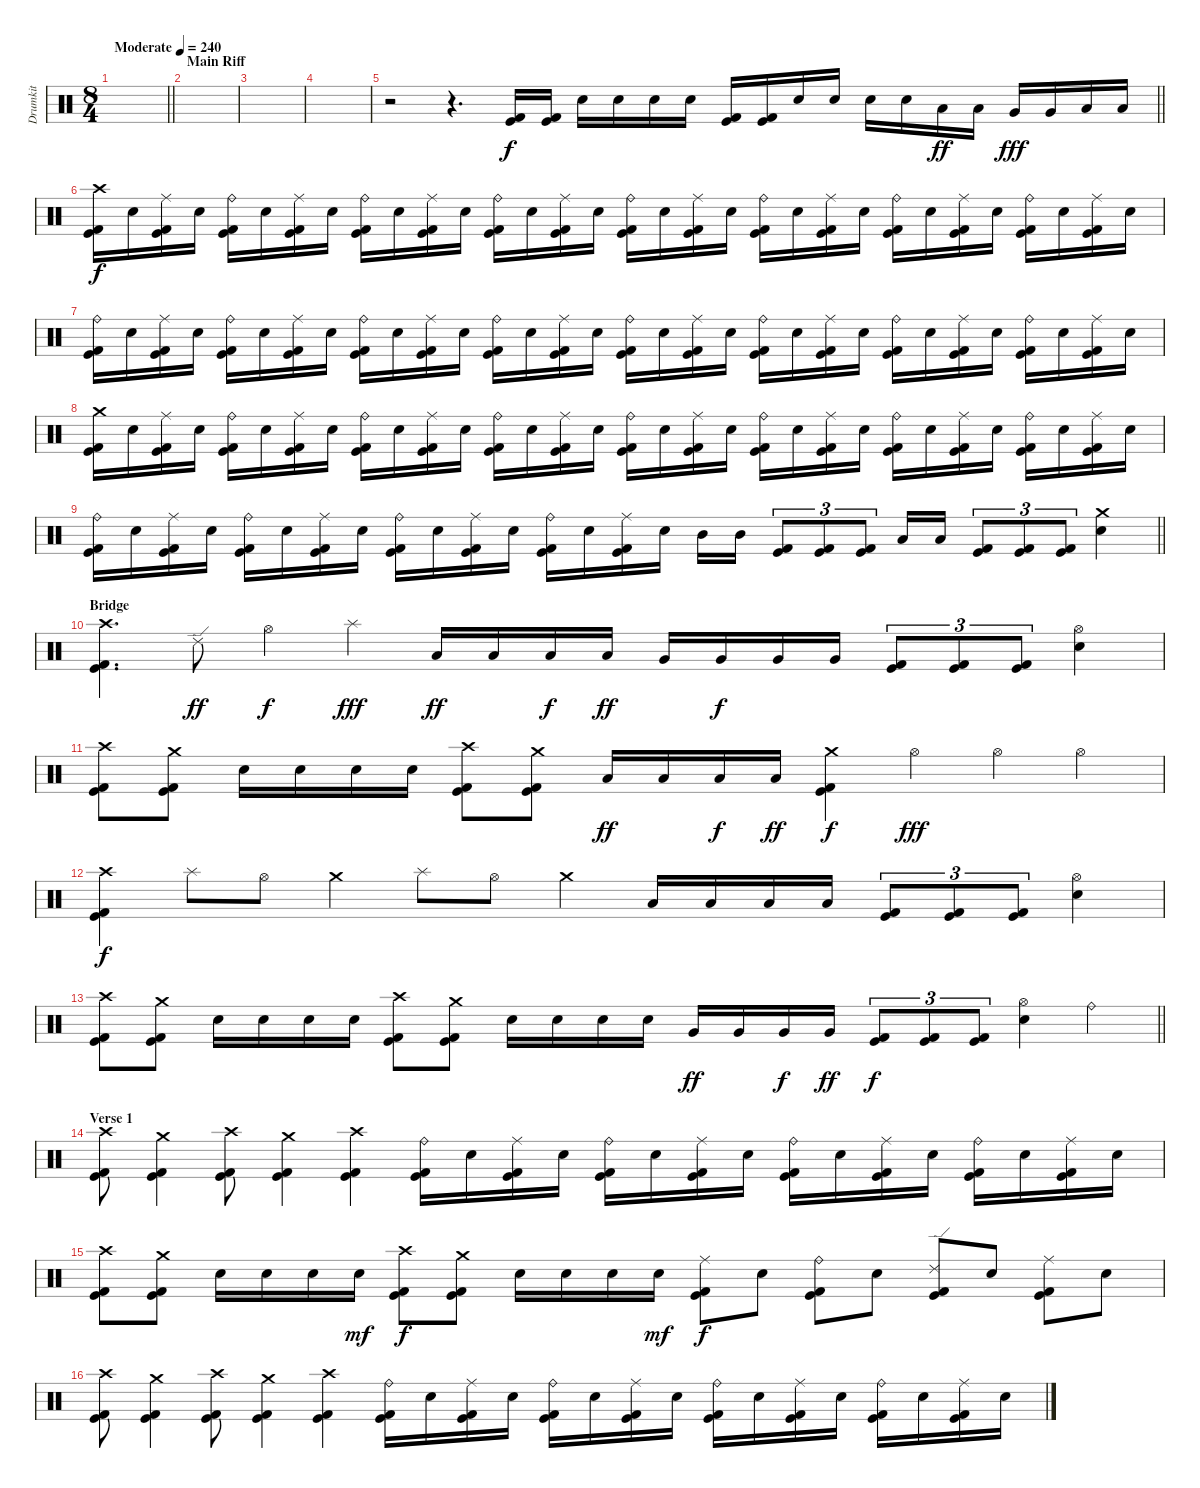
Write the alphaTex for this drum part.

\track ("Drumkit" "Drumkit") {instrument percussion}
\staff {score}
\articulation defaults
\ts (8 4)
\tempo (240 "Moderate")
\clef neutral
\barLineRight lightlight
\ks c
|
\section ("" "Main Riff")
|
|
|
\barLineRight lightlight
r.2 r.4{d} ("Kick (hit)" "Kick (hit) 2").16 ("Kick (hit)" "Kick (hit) 2").16 "Electric Snare (hit)".16 "Electric Snare (hit)".16 "Electric Snare (hit)".16 "Electric Snare (hit)".16 ("Kick (hit)" "Kick (hit) 2").16 ("Kick (hit)" "Kick (hit) 2").16 "Electric Snare (hit)".16 "Electric Snare (hit)".16 "Electric Snare (hit)".16 "Electric Snare (hit)".16 "Low Tom (hit)".16{dy ff} "Low Tom (hit)".16 "Very Low Tom (hit)".16{dy fff} "Very Low Tom (hit)".16 "Low Floor Tom (hit)".16 "Low Floor Tom (hit)".16 |
("Crash high (hit)" "Kick (hit)" "Kick (hit) 2").16{dy f} "Electric Snare (hit)".16 ("Ride (middle)" "Kick (hit)" "Kick (hit) 2").16 "Electric Snare (hit)".16 ("Ride (bell)" "Kick (hit)" "Kick (hit) 2").16 "Electric Snare (hit)".16 ("Ride (middle)" "Kick (hit)" "Kick (hit) 2").16 "Electric Snare (hit)".16 ("Ride (bell)" "Kick (hit)" "Kick (hit) 2").16 "Electric Snare (hit)".16 ("Ride (middle)" "Kick (hit)" "Kick (hit) 2").16 "Electric Snare (hit)".16 ("Ride (bell)" "Kick (hit)" "Kick (hit) 2").16 "Electric Snare (hit)".16 ("Ride (middle)" "Kick (hit)" "Kick (hit) 2").16 "Electric Snare (hit)".16 ("Ride (bell)" "Kick (hit)" "Kick (hit) 2").16 "Electric Snare (hit)".16 ("Ride (middle)" "Kick (hit)" "Kick (hit) 2").16 "Electric Snare (hit)".16 ("Ride (bell)" "Kick (hit)" "Kick (hit) 2").16 "Electric Snare (hit)".16 ("Ride (middle)" "Kick (hit)" "Kick (hit) 2").16 "Electric Snare (hit)".16 ("Ride (bell)" "Kick (hit)" "Kick (hit) 2").16 "Electric Snare (hit)".16 ("Ride (middle)" "Kick (hit)" "Kick (hit) 2").16 "Electric Snare (hit)".16 ("Ride (bell)" "Kick (hit)" "Kick (hit) 2").16 "Electric Snare (hit)".16 ("Ride (middle)" "Kick (hit)" "Kick (hit) 2").16 "Electric Snare (hit)".16 |
("Ride (bell)" "Kick (hit)" "Kick (hit) 2").16 "Electric Snare (hit)".16 ("Ride (middle)" "Kick (hit)" "Kick (hit) 2").16 "Electric Snare (hit)".16 ("Ride (bell)" "Kick (hit)" "Kick (hit) 2").16 "Electric Snare (hit)".16 ("Ride (middle)" "Kick (hit)" "Kick (hit) 2").16 "Electric Snare (hit)".16 ("Ride (bell)" "Kick (hit)" "Kick (hit) 2").16 "Electric Snare (hit)".16 ("Ride (middle)" "Kick (hit)" "Kick (hit) 2").16 "Electric Snare (hit)".16 ("Ride (bell)" "Kick (hit)" "Kick (hit) 2").16 "Electric Snare (hit)".16 ("Ride (middle)" "Kick (hit)" "Kick (hit) 2").16 "Electric Snare (hit)".16 ("Ride (bell)" "Kick (hit)" "Kick (hit) 2").16 "Electric Snare (hit)".16 ("Ride (middle)" "Kick (hit)" "Kick (hit) 2").16 "Electric Snare (hit)".16 ("Ride (bell)" "Kick (hit)" "Kick (hit) 2").16 "Electric Snare (hit)".16 ("Ride (middle)" "Kick (hit)" "Kick (hit) 2").16 "Electric Snare (hit)".16 ("Ride (bell)" "Kick (hit)" "Kick (hit) 2").16 "Electric Snare (hit)".16 ("Ride (middle)" "Kick (hit)" "Kick (hit) 2").16 "Electric Snare (hit)".16 ("Ride (bell)" "Kick (hit)" "Kick (hit) 2").16 "Electric Snare (hit)".16 ("Ride (middle)" "Kick (hit)" "Kick (hit) 2").16 "Electric Snare (hit)".16 |
("Crash medium (hit)" "Kick (hit)" "Kick (hit) 2").16 "Electric Snare (hit)".16 ("Ride (middle)" "Kick (hit)" "Kick (hit) 2").16 "Electric Snare (hit)".16 ("Ride (bell)" "Kick (hit)" "Kick (hit) 2").16 "Electric Snare (hit)".16 ("Ride (middle)" "Kick (hit)" "Kick (hit) 2").16 "Electric Snare (hit)".16 ("Ride (bell)" "Kick (hit)" "Kick (hit) 2").16 "Electric Snare (hit)".16 ("Ride (middle)" "Kick (hit)" "Kick (hit) 2").16 "Electric Snare (hit)".16 ("Ride (bell)" "Kick (hit)" "Kick (hit) 2").16 "Electric Snare (hit)".16 ("Ride (middle)" "Kick (hit)" "Kick (hit) 2").16 "Electric Snare (hit)".16 ("Ride (bell)" "Kick (hit)" "Kick (hit) 2").16 "Electric Snare (hit)".16 ("Ride (middle)" "Kick (hit)" "Kick (hit) 2").16 "Electric Snare (hit)".16 ("Ride (bell)" "Kick (hit)" "Kick (hit) 2").16 "Electric Snare (hit)".16 ("Ride (middle)" "Kick (hit)" "Kick (hit) 2").16 "Electric Snare (hit)".16 ("Ride (bell)" "Kick (hit)" "Kick (hit) 2").16 "Electric Snare (hit)".16 ("Ride (middle)" "Kick (hit)" "Kick (hit) 2").16 "Electric Snare (hit)".16 ("Ride (bell)" "Kick (hit)" "Kick (hit) 2").16 "Electric Snare (hit)".16 ("Ride (middle)" "Kick (hit)" "Kick (hit) 2").16 "Electric Snare (hit)".16 |
\barLineRight lightlight
("Ride (bell)" "Kick (hit)" "Kick (hit) 2").16 "Electric Snare (hit)".16 ("Ride (middle)" "Kick (hit)" "Kick (hit) 2").16 "Electric Snare (hit)".16 ("Ride (bell)" "Kick (hit)" "Kick (hit) 2").16 "Electric Snare (hit)".16 ("Ride (middle)" "Kick (hit)" "Kick (hit) 2").16 "Electric Snare (hit)".16 ("Ride (bell)" "Kick (hit)" "Kick (hit) 2").16 "Electric Snare (hit)".16 ("Ride (middle)" "Kick (hit)" "Kick (hit) 2").16 "Electric Snare (hit)".16 ("Ride (bell)" "Kick (hit)" "Kick (hit) 2").16 "Electric Snare (hit)".16 ("Ride (middle)" "Kick (hit)" "Kick (hit) 2").16 "Electric Snare (hit)".16 "Mid Tom (hit)".16 "Mid Tom (hit)".16 ("Kick (hit)" "Kick (hit) 2").8{tu (3 2)} ("Kick (hit)" "Kick (hit) 2").8{tu (3 2)} ("Kick (hit)" "Kick (hit) 2").8{tu (3 2)} "Low Tom (hit)".16 "Low Tom (hit)".16 ("Kick (hit)" "Kick (hit) 2").8{tu (3 2)} ("Kick (hit)" "Kick (hit) 2").8{tu (3 2)} ("Kick (hit)" "Kick (hit) 2").8{tu (3 2)} ("Crash medium (hit)" "Electric Snare (hit)").4 |
\section ("" "Bridge")
("Crash high (hit)" "Kick (hit)" "Kick (hit) 2").4{d} "Ride (edge) 2".8{dy ff} "Hi-Hat (open)".4{dy f} "Splash (hit)".4{dy fff} "Low Tom (hit)".16{dy ff} "Low Tom (hit)".16 "Low Tom (hit)".16{dy f} "Low Tom (hit)".16{dy ff} "Very Low Tom (hit)".16 "Very Low Tom (hit)".16{dy f} "Very Low Tom (hit)".16 "Very Low Tom (hit)".16 ("Kick (hit)" "Kick (hit) 2").8{tu (3 2)} ("Kick (hit)" "Kick (hit) 2").8{tu (3 2)} ("Kick (hit)" "Kick (hit) 2").8{tu (3 2)} ("Hi-Hat (open)" "Electric Snare (hit)").4 |
("Crash high (hit)" "Kick (hit)" "Kick (hit) 2").8 ("Crash medium (hit)" "Kick (hit)" "Kick (hit) 2").8 "Electric Snare (hit)".16 "Electric Snare (hit)".16 "Electric Snare (hit)".16 "Electric Snare (hit)".16 ("Crash high (hit)" "Kick (hit)" "Kick (hit) 2").8 ("Crash medium (hit)" "Kick (hit)" "Kick (hit) 2").8 "Low Tom (hit)".16{dy ff} "Low Tom (hit)".16 "Low Tom (hit)".16{dy f} "Low Tom (hit)".16{dy ff} ("Crash medium (hit)" "Kick (hit)" "Kick (hit) 2").4{dy f} "Hi-Hat (open)".4{dy fff} "Hi-Hat (open)".4 "Hi-Hat (open)".4 |
("Crash high (hit)" "Kick (hit)" "Kick (hit) 2").4{dy f} "Splash (hit)".8 "Hi-Hat (open)".8 "Crash medium (hit)".4 "Splash (hit)".8 "Hi-Hat (open)".8 "Crash medium (hit)".4 "Low Tom (hit)".16 "Low Tom (hit)".16 "Low Tom (hit)".16 "Low Tom (hit)".16 ("Kick (hit)" "Kick (hit) 2").8{tu (3 2)} ("Kick (hit)" "Kick (hit) 2").8{tu (3 2)} ("Kick (hit)" "Kick (hit) 2").8{tu (3 2)} ("Hi-Hat (open)" "Electric Snare (hit)").4 |
\barLineRight lightlight
("Crash high (hit)" "Kick (hit)" "Kick (hit) 2").8 ("Crash medium (hit)" "Kick (hit)" "Kick (hit) 2").8 "Electric Snare (hit)".16 "Electric Snare (hit)".16 "Electric Snare (hit)".16 "Electric Snare (hit)".16 ("Crash high (hit)" "Kick (hit)" "Kick (hit) 2").8 ("Crash medium (hit)" "Kick (hit)" "Kick (hit) 2").8 "Electric Snare (hit)".16 "Electric Snare (hit)".16 "Electric Snare (hit)".16 "Electric Snare (hit)".16 "Very Low Tom (hit)".16{dy ff} "Very Low Tom (hit)".16 "Very Low Tom (hit)".16{dy f} "Very Low Tom (hit)".16{dy ff} ("Kick (hit)" "Kick (hit) 2").8{tu (3 2) dy f} ("Kick (hit)" "Kick (hit) 2").8{tu (3 2)} ("Kick (hit)" "Kick (hit) 2").8{tu (3 2)} ("Hi-Hat (open)" "Electric Snare (hit)").4 "Ride (bell)".4 |
\section ("" "Verse 1")
("Crash high (hit)" "Kick (hit)" "Kick (hit) 2").8 ("Crash medium (hit)" "Kick (hit)" "Kick (hit) 2").4 ("Crash high (hit)" "Kick (hit)" "Kick (hit) 2").8 ("Crash medium (hit)" "Kick (hit)" "Kick (hit) 2").4 ("Crash high (hit)" "Kick (hit)" "Kick (hit) 2").4 ("Ride (bell)" "Kick (hit)" "Kick (hit) 2").16 "Electric Snare (hit)".16 ("Ride (middle)" "Kick (hit)" "Kick (hit) 2").16 "Electric Snare (hit)".16 ("Ride (bell)" "Kick (hit)" "Kick (hit) 2").16 "Electric Snare (hit)".16 ("Ride (middle)" "Kick (hit)" "Kick (hit) 2").16 "Electric Snare (hit)".16 ("Ride (bell)" "Kick (hit)" "Kick (hit) 2").16 "Electric Snare (hit)".16 ("Ride (middle)" "Kick (hit)" "Kick (hit) 2").16 "Electric Snare (hit)".16 ("Ride (bell)" "Kick (hit)" "Kick (hit) 2").16 "Electric Snare (hit)".16 ("Ride (middle)" "Kick (hit)" "Kick (hit) 2").16 "Electric Snare (hit)".16 |
("Crash high (hit)" "Kick (hit)" "Kick (hit) 2").8 ("Crash medium (hit)" "Kick (hit)" "Kick (hit) 2").8 "Electric Snare (hit)".16 "Electric Snare (hit)".16 "Electric Snare (hit)".16 "Electric Snare (hit)".16{dy mf} ("Crash high (hit)" "Kick (hit)" "Kick (hit) 2").8{dy f} ("Crash medium (hit)" "Kick (hit)" "Kick (hit) 2").8 "Electric Snare (hit)".16 "Electric Snare (hit)".16 "Electric Snare (hit)".16 "Electric Snare (hit)".16{dy mf} ("Ride (middle)" "Kick (hit)" "Kick (hit) 2").8{dy f} "Electric Snare (hit)".8 ("Ride (bell)" "Kick (hit)" "Kick (hit) 2").8 "Electric Snare (hit)".8 ("Ride (edge) 2" "Kick (hit)" "Kick (hit) 2").8 "Electric Snare (hit)".8 ("Ride (middle)" "Kick (hit)" "Kick (hit) 2").8 "Electric Snare (hit)".8 |
("Crash high (hit)" "Kick (hit)" "Kick (hit) 2").8 ("Crash medium (hit)" "Kick (hit)" "Kick (hit) 2").4 ("Crash high (hit)" "Kick (hit)" "Kick (hit) 2").8 ("Crash medium (hit)" "Kick (hit)" "Kick (hit) 2").4 ("Crash high (hit)" "Kick (hit)" "Kick (hit) 2").4 ("Ride (bell)" "Kick (hit)" "Kick (hit) 2").16 "Electric Snare (hit)".16 ("Ride (middle)" "Kick (hit)" "Kick (hit) 2").16 "Electric Snare (hit)".16 ("Ride (bell)" "Kick (hit)" "Kick (hit) 2").16 "Electric Snare (hit)".16 ("Ride (middle)" "Kick (hit)" "Kick (hit) 2").16 "Electric Snare (hit)".16 ("Ride (bell)" "Kick (hit)" "Kick (hit) 2").16 "Electric Snare (hit)".16 ("Ride (middle)" "Kick (hit)" "Kick (hit) 2").16 "Electric Snare (hit)".16 ("Ride (bell)" "Kick (hit)" "Kick (hit) 2").16 "Electric Snare (hit)".16 ("Ride (middle)" "Kick (hit)" "Kick (hit) 2").16 "Electric Snare (hit)".16
